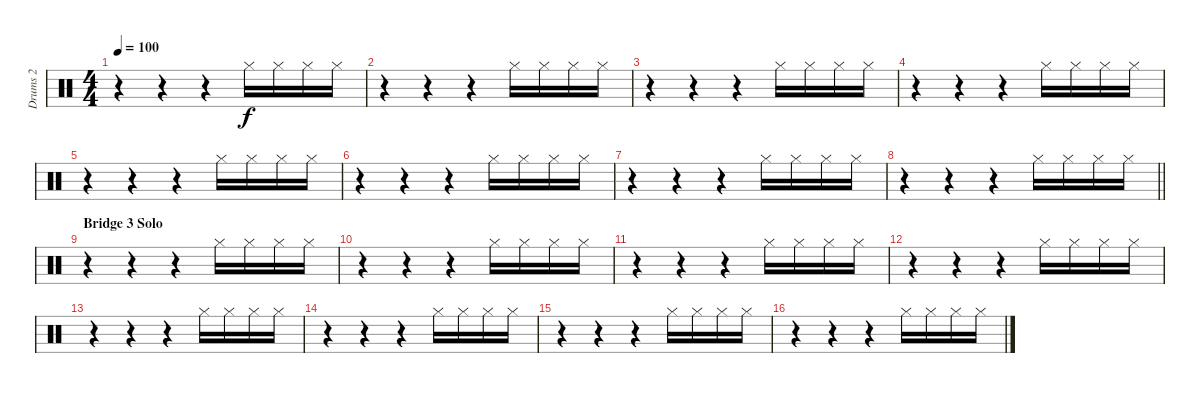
\track ("Drums 2" "Drums 2") {instrument percussion}
\staff {score}
\articulation defaults
\ts (4 4)
\tempo 100
\clef neutral
\ks c
r.4{dy f} r.4 r.4 "Hi-Hat (closed)".16 "Hi-Hat (closed)".16 "Hi-Hat (closed)".16 "Hi-Hat (closed)".16 |
r.4 r.4 r.4 "Hi-Hat (closed)".16 "Hi-Hat (closed)".16 "Hi-Hat (closed)".16 "Hi-Hat (closed)".16 |
r.4 r.4 r.4 "Hi-Hat (closed)".16 "Hi-Hat (closed)".16 "Hi-Hat (closed)".16 "Hi-Hat (closed)".16 |
r.4 r.4 r.4 "Hi-Hat (closed)".16 "Hi-Hat (closed)".16 "Hi-Hat (closed)".16 "Hi-Hat (closed)".16 |
r.4 r.4 r.4 "Hi-Hat (closed)".16 "Hi-Hat (closed)".16 "Hi-Hat (closed)".16 "Hi-Hat (closed)".16 |
r.4 r.4 r.4 "Hi-Hat (closed)".16 "Hi-Hat (closed)".16 "Hi-Hat (closed)".16 "Hi-Hat (closed)".16 |
r.4 r.4 r.4 "Hi-Hat (closed)".16 "Hi-Hat (closed)".16 "Hi-Hat (closed)".16 "Hi-Hat (closed)".16 |
\barLineRight lightlight
r.4 r.4 r.4 "Hi-Hat (closed)".16 "Hi-Hat (closed)".16 "Hi-Hat (closed)".16 "Hi-Hat (closed)".16 |
\section ("" "Bridge 3 Solo")
r.4 r.4 r.4 "Hi-Hat (closed)".16 "Hi-Hat (closed)".16 "Hi-Hat (closed)".16 "Hi-Hat (closed)".16 |
r.4 r.4 r.4 "Hi-Hat (closed)".16 "Hi-Hat (closed)".16 "Hi-Hat (closed)".16 "Hi-Hat (closed)".16 |
r.4 r.4 r.4 "Hi-Hat (closed)".16 "Hi-Hat (closed)".16 "Hi-Hat (closed)".16 "Hi-Hat (closed)".16 |
r.4 r.4 r.4 "Hi-Hat (closed)".16 "Hi-Hat (closed)".16 "Hi-Hat (closed)".16 "Hi-Hat (closed)".16 |
r.4 r.4 r.4 "Hi-Hat (closed)".16 "Hi-Hat (closed)".16 "Hi-Hat (closed)".16 "Hi-Hat (closed)".16 |
r.4 r.4 r.4 "Hi-Hat (closed)".16 "Hi-Hat (closed)".16 "Hi-Hat (closed)".16 "Hi-Hat (closed)".16 |
r.4 r.4 r.4 "Hi-Hat (closed)".16 "Hi-Hat (closed)".16 "Hi-Hat (closed)".16 "Hi-Hat (closed)".16 |
r.4 r.4 r.4 "Hi-Hat (closed)".16 "Hi-Hat (closed)".16 "Hi-Hat (closed)".16 "Hi-Hat (closed)".16
